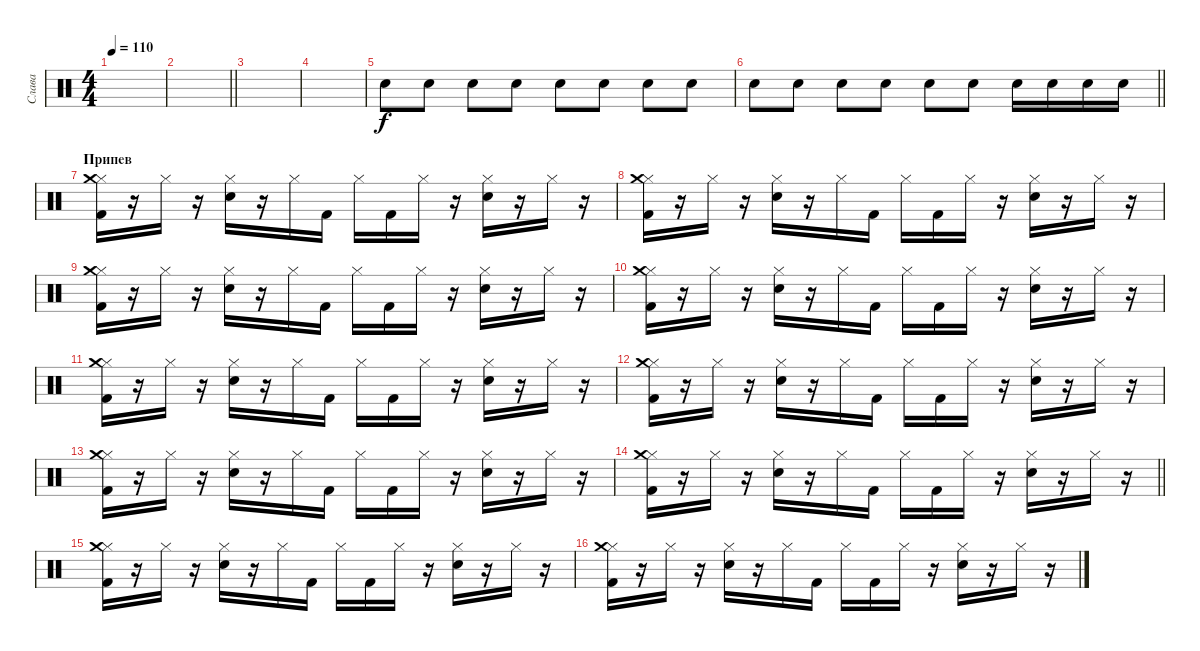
\track ("Слава" "Слава") {instrument percussion}
\staff {score}
\articulation defaults
\ts (4 4)
\tempo 110
\clef neutral
\ks c
|
\barLineRight lightlight
|
|
|
"Electric Snare (hit)".8{volume 7} "Electric Snare (hit)".8 "Electric Snare (hit)".8 "Electric Snare (hit)".8 "Electric Snare (hit)".8{volume 9} "Electric Snare (hit)".8 "Electric Snare (hit)".8 "Electric Snare (hit)".8 |
\barLineRight lightlight "Electric Snare (hit)".8{volume 12} "Electric Snare (hit)".8 "Electric Snare (hit)".8 "Electric Snare (hit)".8 "Electric Snare (hit)".8{volume 16} "Electric Snare (hit)".8 "Electric Snare (hit)".16 "Electric Snare (hit)".16 "Electric Snare (hit)".16 "Electric Snare (hit)".16
|
\section ("" "Припев")
("Hi-Hat (closed)" "Crash medium (hit)" "Kick (hit) 2").16 r.16 "Hi-Hat (closed)".16 r.16 ("Hi-Hat (closed)" "Electric Snare (hit)").16 r.16 "Hi-Hat (closed)".16 "Kick (hit) 2".16 "Hi-Hat (closed)".16 "Kick (hit) 2".16 "Hi-Hat (closed)".16 r.16 ("Hi-Hat (closed)" "Electric Snare (hit)").16 r.16 "Hi-Hat (closed)".16 r.16 |
("Hi-Hat (closed)" "Crash medium (hit)" "Kick (hit) 2").16 r.16 "Hi-Hat (closed)".16 r.16 ("Hi-Hat (closed)" "Electric Snare (hit)").16 r.16 "Hi-Hat (closed)".16 "Kick (hit) 2".16 "Hi-Hat (closed)".16 "Kick (hit) 2".16 "Hi-Hat (closed)".16 r.16 ("Hi-Hat (closed)" "Electric Snare (hit)").16 r.16 "Hi-Hat (closed)".16 r.16 |
("Hi-Hat (closed)" "Crash medium (hit)" "Kick (hit) 2").16 r.16 "Hi-Hat (closed)".16 r.16 ("Hi-Hat (closed)" "Electric Snare (hit)").16 r.16 "Hi-Hat (closed)".16 "Kick (hit) 2".16 "Hi-Hat (closed)".16 "Kick (hit) 2".16 "Hi-Hat (closed)".16 r.16 ("Hi-Hat (closed)" "Electric Snare (hit)").16 r.16 "Hi-Hat (closed)".16 r.16 |
("Hi-Hat (closed)" "Crash medium (hit)" "Kick (hit) 2").16 r.16 "Hi-Hat (closed)".16 r.16 ("Hi-Hat (closed)" "Electric Snare (hit)").16 r.16 "Hi-Hat (closed)".16 "Kick (hit) 2".16 "Hi-Hat (closed)".16 "Kick (hit) 2".16 "Hi-Hat (closed)".16 r.16 ("Hi-Hat (closed)" "Electric Snare (hit)").16 r.16 "Hi-Hat (closed)".16 r.16 |
("Hi-Hat (closed)" "Crash medium (hit)" "Kick (hit) 2").16 r.16 "Hi-Hat (closed)".16 r.16 ("Hi-Hat (closed)" "Electric Snare (hit)").16 r.16 "Hi-Hat (closed)".16 "Kick (hit) 2".16 "Hi-Hat (closed)".16 "Kick (hit) 2".16 "Hi-Hat (closed)".16 r.16 ("Hi-Hat (closed)" "Electric Snare (hit)").16 r.16 "Hi-Hat (closed)".16 r.16 |
("Hi-Hat (closed)" "Crash medium (hit)" "Kick (hit) 2").16 r.16 "Hi-Hat (closed)".16 r.16 ("Hi-Hat (closed)" "Electric Snare (hit)").16 r.16 "Hi-Hat (closed)".16 "Kick (hit) 2".16 "Hi-Hat (closed)".16 "Kick (hit) 2".16 "Hi-Hat (closed)".16 r.16 ("Hi-Hat (closed)" "Electric Snare (hit)").16 r.16 "Hi-Hat (closed)".16 r.16 |
("Hi-Hat (closed)" "Crash medium (hit)" "Kick (hit) 2").16 r.16 "Hi-Hat (closed)".16 r.16 ("Hi-Hat (closed)" "Electric Snare (hit)").16 r.16 "Hi-Hat (closed)".16 "Kick (hit) 2".16 "Hi-Hat (closed)".16 "Kick (hit) 2".16 "Hi-Hat (closed)".16 r.16 ("Hi-Hat (closed)" "Electric Snare (hit)").16 r.16 "Hi-Hat (closed)".16 r.16 |
\barLineRight lightlight
("Hi-Hat (closed)" "Crash medium (hit)" "Kick (hit) 2").16 r.16 "Hi-Hat (closed)".16 r.16 ("Hi-Hat (closed)" "Electric Snare (hit)").16 r.16 "Hi-Hat (closed)".16 "Kick (hit) 2".16 "Hi-Hat (closed)".16 "Kick (hit) 2".16 "Hi-Hat (closed)".16 r.16 ("Hi-Hat (closed)" "Electric Snare (hit)").16 r.16 "Hi-Hat (closed)".16 r.16 |
("Hi-Hat (closed)" "Crash medium (hit)" "Kick (hit) 2").16 r.16 "Hi-Hat (closed)".16 r.16 ("Hi-Hat (closed)" "Electric Snare (hit)").16 r.16 "Hi-Hat (closed)".16 "Kick (hit) 2".16 "Hi-Hat (closed)".16 "Kick (hit) 2".16 "Hi-Hat (closed)".16 r.16 ("Hi-Hat (closed)" "Electric Snare (hit)").16 r.16 "Hi-Hat (closed)".16 r.16 |
("Hi-Hat (closed)" "Crash medium (hit)" "Kick (hit) 2").16 r.16 "Hi-Hat (closed)".16 r.16 ("Hi-Hat (closed)" "Electric Snare (hit)").16 r.16 "Hi-Hat (closed)".16 "Kick (hit) 2".16 "Hi-Hat (closed)".16 "Kick (hit) 2".16 "Hi-Hat (closed)".16 r.16 ("Hi-Hat (closed)" "Electric Snare (hit)").16 r.16 "Hi-Hat (closed)".16 r.16
